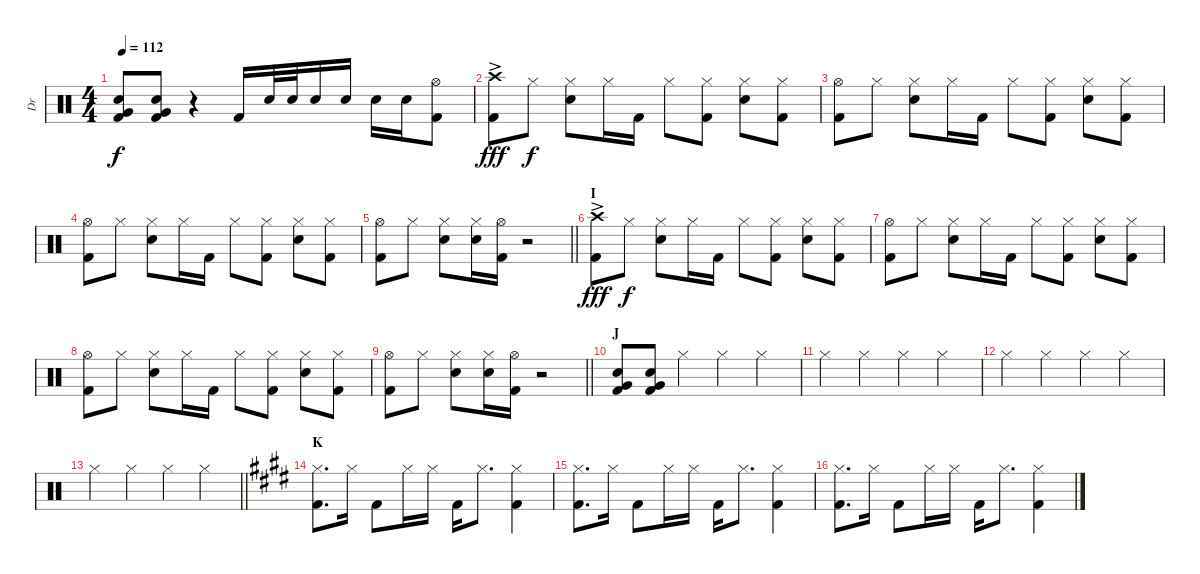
\track ("Dr" "Dr") {instrument percussion}
\staff {score}
\articulation defaults
\ts (4 4)
\tempo 112
\clef neutral
\ks c
("Electric Snare (hit)" "Very Low Tom (hit)" "Kick (hit) 2").8{dy f} ("Electric Snare (hit)" "Very Low Tom (hit)" "Kick (hit) 2").8 r.4 "Kick (hit) 2".16 "Electric Snare (hit)".32 "Electric Snare (hit)".32 "Electric Snare (hit)".16 "Electric Snare (hit)".16 "Electric Snare (hit)".16 "Electric Snare (hit)".16 ("Hi-Hat (open)" "Kick (hit) 2").8 |
("Crash high (hit)"{ac} "Kick (hit) 2"{ac}).8{dy fff} "Hi-Hat (closed)".8{dy f} ("Hi-Hat (closed)" "Electric Snare (hit)").8 "Hi-Hat (closed)".16 "Kick (hit) 2".16 "Hi-Hat (closed)".8 ("Hi-Hat (closed)" "Kick (hit) 2").8 ("Hi-Hat (closed)" "Electric Snare (hit)").8 ("Hi-Hat (closed)" "Kick (hit) 2").8 |
("Hi-Hat (open)" "Kick (hit) 2").8 "Hi-Hat (closed)".8 ("Hi-Hat (closed)" "Electric Snare (hit)").8 "Hi-Hat (closed)".16 "Kick (hit) 2".16 "Hi-Hat (closed)".8 ("Hi-Hat (closed)" "Kick (hit) 2").8 ("Hi-Hat (closed)" "Electric Snare (hit)").8 ("Hi-Hat (closed)" "Kick (hit) 2").8 |
("Hi-Hat (open)" "Kick (hit) 2").8 "Hi-Hat (closed)".8 ("Hi-Hat (closed)" "Electric Snare (hit)").8 "Hi-Hat (closed)".16 "Kick (hit) 2".16 "Hi-Hat (closed)".8 ("Hi-Hat (closed)" "Kick (hit) 2").8 ("Hi-Hat (closed)" "Electric Snare (hit)").8 ("Hi-Hat (closed)" "Kick (hit) 2").8 |
\barLineRight lightlight
("Hi-Hat (open)" "Kick (hit) 2").8 "Hi-Hat (closed)".8 ("Hi-Hat (closed)" "Electric Snare (hit)").8 ("Hi-Hat (closed)" "Electric Snare (hit)").16 ("Hi-Hat (open)" "Kick (hit) 2").16 r.2 |
\section ("" "I")
("Crash high (hit)"{ac} "Kick (hit) 2"{ac}).8{dy fff} "Hi-Hat (closed)".8{dy f} ("Hi-Hat (closed)" "Electric Snare (hit)").8 "Hi-Hat (closed)".16 "Kick (hit) 2".16 "Hi-Hat (closed)".8 ("Hi-Hat (closed)" "Kick (hit) 2").8 ("Hi-Hat (closed)" "Electric Snare (hit)").8 ("Hi-Hat (closed)" "Kick (hit) 2").8 |
("Hi-Hat (open)" "Kick (hit) 2").8 "Hi-Hat (closed)".8 ("Hi-Hat (closed)" "Electric Snare (hit)").8 "Hi-Hat (closed)".16 "Kick (hit) 2".16 "Hi-Hat (closed)".8 ("Hi-Hat (closed)" "Kick (hit) 2").8 ("Hi-Hat (closed)" "Electric Snare (hit)").8 ("Hi-Hat (closed)" "Kick (hit) 2").8 |
("Hi-Hat (open)" "Kick (hit) 2").8 "Hi-Hat (closed)".8 ("Hi-Hat (closed)" "Electric Snare (hit)").8 "Hi-Hat (closed)".16 "Kick (hit) 2".16 "Hi-Hat (closed)".8 ("Hi-Hat (closed)" "Kick (hit) 2").8 ("Hi-Hat (closed)" "Electric Snare (hit)").8 ("Hi-Hat (closed)" "Kick (hit) 2").8 |
\barLineRight lightlight
("Hi-Hat (open)" "Kick (hit) 2").8 "Hi-Hat (closed)".8 ("Hi-Hat (closed)" "Electric Snare (hit)").8 ("Hi-Hat (closed)" "Electric Snare (hit)").16 ("Hi-Hat (open)" "Kick (hit) 2").16 r.2 |
\section ("" "J")
("Electric Snare (hit)" "Very Low Tom (hit)" "Kick (hit) 2").8 ("Electric Snare (hit)" "Very Low Tom (hit)" "Kick (hit) 2").8 "Hi-Hat (closed)".4 "Hi-Hat (closed)".4 "Hi-Hat (closed)".4 |
"Hi-Hat (closed)".4 "Hi-Hat (closed)".4 "Hi-Hat (closed)".4 "Hi-Hat (closed)".4 |
"Hi-Hat (closed)".4 "Hi-Hat (closed)".4 "Hi-Hat (closed)".4 "Hi-Hat (closed)".4 |
\barLineRight lightlight "Hi-Hat (closed)".4 "Hi-Hat (closed)".4 "Hi-Hat (closed)".4 "Hi-Hat (closed)".4
|
\section ("" "K")
\ks e
("Hi-Hat (closed)" "Kick (hit) 2").8{d} "Hi-Hat (closed)".16 "Kick (hit) 2".8 "Hi-Hat (closed)".16 "Hi-Hat (closed)".16 "Kick (hit) 2".16 "Hi-Hat (closed)".8{d} ("Hi-Hat (closed)" "Kick (hit) 2").4 |
("Hi-Hat (closed)" "Kick (hit) 2").8{d} "Hi-Hat (closed)".16 "Kick (hit) 2".8 "Hi-Hat (closed)".16 "Hi-Hat (closed)".16 "Kick (hit) 2".16 "Hi-Hat (closed)".8{d} ("Hi-Hat (closed)" "Kick (hit) 2").4 |
("Hi-Hat (closed)" "Kick (hit) 2").8{d} "Hi-Hat (closed)".16 "Kick (hit) 2".8 "Hi-Hat (closed)".16 "Hi-Hat (closed)".16 "Kick (hit) 2".16 "Hi-Hat (closed)".8{d} ("Hi-Hat (closed)" "Kick (hit) 2").4
